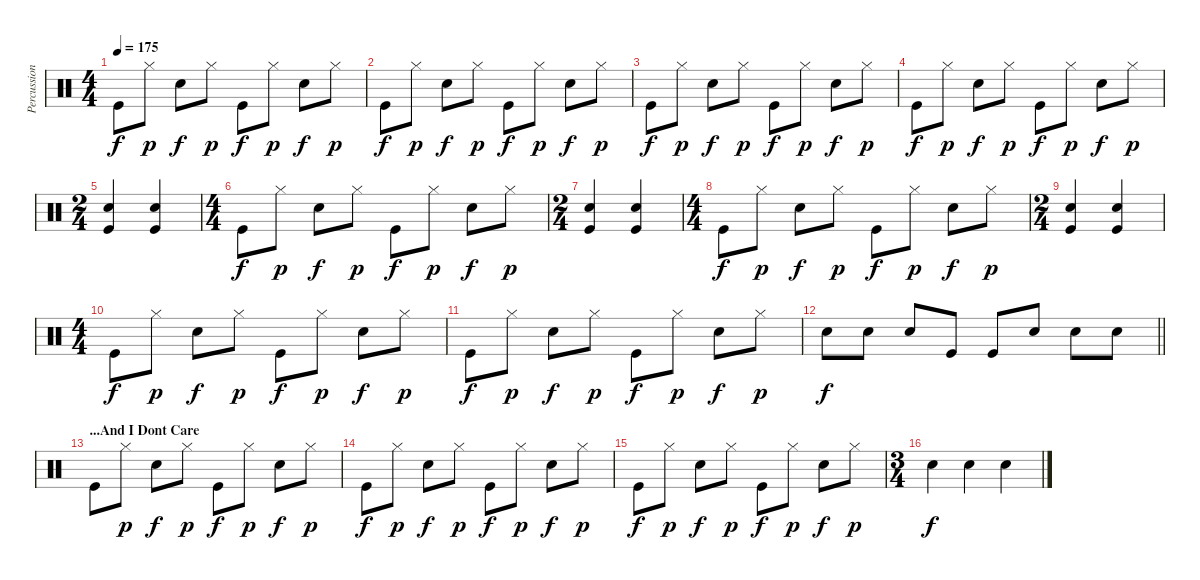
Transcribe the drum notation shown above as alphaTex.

\track ("Percussion" "Percussion") {instrument percussion}
\staff {score}
\articulation defaults
\ts (4 4)
\tempo 175
\clef neutral
\ks c "Kick (hit)".8{dy f} "Hi-Hat (closed)".8{dy p} "Snare (hit) 2".8{dy f} "Hi-Hat (closed)".8{dy p} "Kick (hit)".8{dy f} "Hi-Hat (closed)".8{dy p} "Snare (hit) 2".8{dy f} "Hi-Hat (closed)".8{dy p}
|
"Kick (hit)".8{dy f} "Hi-Hat (closed)".8{dy p} "Snare (hit) 2".8{dy f} "Hi-Hat (closed)".8{dy p} "Kick (hit)".8{dy f} "Hi-Hat (closed)".8{dy p} "Snare (hit) 2".8{dy f} "Hi-Hat (closed)".8{dy p} |
"Kick (hit)".8{dy f} "Hi-Hat (closed)".8{dy p} "Snare (hit) 2".8{dy f} "Hi-Hat (closed)".8{dy p} "Kick (hit)".8{dy f} "Hi-Hat (closed)".8{dy p} "Snare (hit) 2".8{dy f} "Hi-Hat (closed)".8{dy p} |
"Kick (hit)".8{dy f} "Hi-Hat (closed)".8{dy p} "Snare (hit) 2".8{dy f} "Hi-Hat (closed)".8{dy p} "Kick (hit)".8{dy f} "Hi-Hat (closed)".8{dy p} "Snare (hit) 2".8{dy f} "Hi-Hat (closed)".8{dy p} |
\ts (2 4)
("Snare (hit) 2" "Kick (hit)").4 ("Snare (hit) 2" "Kick (hit)").4 |
\ts (4 4)
"Kick (hit)".8{dy f} "Hi-Hat (closed)".8{dy p} "Snare (hit) 2".8{dy f} "Hi-Hat (closed)".8{dy p} "Kick (hit)".8{dy f} "Hi-Hat (closed)".8{dy p} "Snare (hit) 2".8{dy f} "Hi-Hat (closed)".8{dy p} |
\ts (2 4)
("Snare (hit) 2" "Kick (hit)").4 ("Snare (hit) 2" "Kick (hit)").4 |
\ts (4 4)
"Kick (hit)".8{dy f} "Hi-Hat (closed)".8{dy p} "Snare (hit) 2".8{dy f} "Hi-Hat (closed)".8{dy p} "Kick (hit)".8{dy f} "Hi-Hat (closed)".8{dy p} "Snare (hit) 2".8{dy f} "Hi-Hat (closed)".8{dy p} |
\ts (2 4)
("Snare (hit) 2" "Kick (hit)").4 ("Snare (hit) 2" "Kick (hit)").4 |
\ts (4 4)
"Kick (hit)".8{dy f} "Hi-Hat (closed)".8{dy p} "Snare (hit) 2".8{dy f} "Hi-Hat (closed)".8{dy p} "Kick (hit)".8{dy f} "Hi-Hat (closed)".8{dy p} "Snare (hit) 2".8{dy f} "Hi-Hat (closed)".8{dy p} |
"Kick (hit)".8{dy f} "Hi-Hat (closed)".8{dy p} "Snare (hit) 2".8{dy f} "Hi-Hat (closed)".8{dy p} "Kick (hit)".8{dy f} "Hi-Hat (closed)".8{dy p} "Snare (hit) 2".8{dy f} "Hi-Hat (closed)".8{dy p} |
\barLineRight lightlight "Snare (hit) 2".8{dy f} "Snare (hit) 2".8 "Snare (hit) 2".8 "Kick (hit)".8 "Kick (hit)".8 "Snare (hit) 2".8 "Snare (hit) 2".8 "Snare (hit) 2".8
|
\section ("" "...And I Dont Care")
"Kick (hit)".8 "Hi-Hat (closed)".8{dy p} "Snare (hit) 2".8{dy f} "Hi-Hat (closed)".8{dy p} "Kick (hit)".8{dy f} "Hi-Hat (closed)".8{dy p} "Snare (hit) 2".8{dy f} "Hi-Hat (closed)".8{dy p} |
"Kick (hit)".8{dy f} "Hi-Hat (closed)".8{dy p} "Snare (hit) 2".8{dy f} "Hi-Hat (closed)".8{dy p} "Kick (hit)".8{dy f} "Hi-Hat (closed)".8{dy p} "Snare (hit) 2".8{dy f} "Hi-Hat (closed)".8{dy p} |
"Kick (hit)".8{dy f} "Hi-Hat (closed)".8{dy p} "Snare (hit) 2".8{dy f} "Hi-Hat (closed)".8{dy p} "Kick (hit)".8{dy f} "Hi-Hat (closed)".8{dy p} "Snare (hit) 2".8{dy f} "Hi-Hat (closed)".8{dy p} |
\ts (3 4)
"Snare (hit) 2".4{dy f} "Snare (hit) 2".4 "Snare (hit) 2".4
